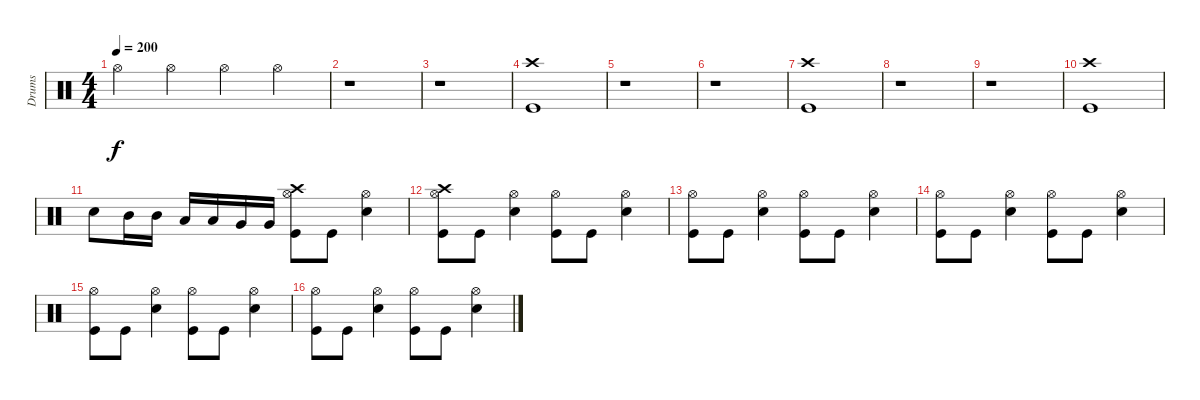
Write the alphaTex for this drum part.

\track ("Drums" "Drums") {instrument percussion}
\staff {score}
\articulation defaults
\ts (4 4)
\tempo 200
\clef neutral
\ks c "Hi-Hat (open)".4{dy f} "Hi-Hat (open)".4 "Hi-Hat (open)".4 "Hi-Hat (open)".4
|
r.1 |
r.1 |
("Crash high (hit)" "Kick (hit)").1 |
r.1 |
r.1 |
("Crash high (hit)" "Kick (hit)").1 |
r.1 |
r.1 |
("Crash high (hit)" "Kick (hit)").1 |
"Electric Snare (hit)".8 "Mid Tom (hit)".16 "Mid Tom (hit)".16 "Low Tom (hit)".16 "Low Tom (hit)".16 "Very Low Tom (hit)".16 "Very Low Tom (hit)".16 ("Hi-Hat (open)" "Crash high (hit)" "Kick (hit)").8 "Kick (hit)".8 ("Hi-Hat (open)" "Electric Snare (hit)").4 |
("Crash high (hit)" "Hi-Hat (open)" "Kick (hit)").8 "Kick (hit)".8 ("Hi-Hat (open)" "Electric Snare (hit)").4 ("Hi-Hat (open)" "Kick (hit)").8 "Kick (hit)".8 ("Hi-Hat (open)" "Electric Snare (hit)").4 |
("Kick (hit)" "Hi-Hat (open)").8 "Kick (hit)".8 ("Electric Snare (hit)" "Hi-Hat (open)").4 ("Hi-Hat (open)" "Kick (hit)").8 "Kick (hit)".8 ("Electric Snare (hit)" "Hi-Hat (open)").4 |
("Kick (hit)" "Hi-Hat (open)").8 "Kick (hit)".8 ("Electric Snare (hit)" "Hi-Hat (open)").4 ("Hi-Hat (open)" "Kick (hit)").8 "Kick (hit)".8 ("Electric Snare (hit)" "Hi-Hat (open)").4 |
("Kick (hit)" "Hi-Hat (open)").8 "Kick (hit)".8 ("Electric Snare (hit)" "Hi-Hat (open)").4 ("Hi-Hat (open)" "Kick (hit)").8 "Kick (hit)".8 ("Electric Snare (hit)" "Hi-Hat (open)").4 |
("Kick (hit)" "Hi-Hat (open)").8 "Kick (hit)".8 ("Electric Snare (hit)" "Hi-Hat (open)").4 ("Hi-Hat (open)" "Kick (hit)").8 "Kick (hit)".8 ("Electric Snare (hit)" "Hi-Hat (open)").4
